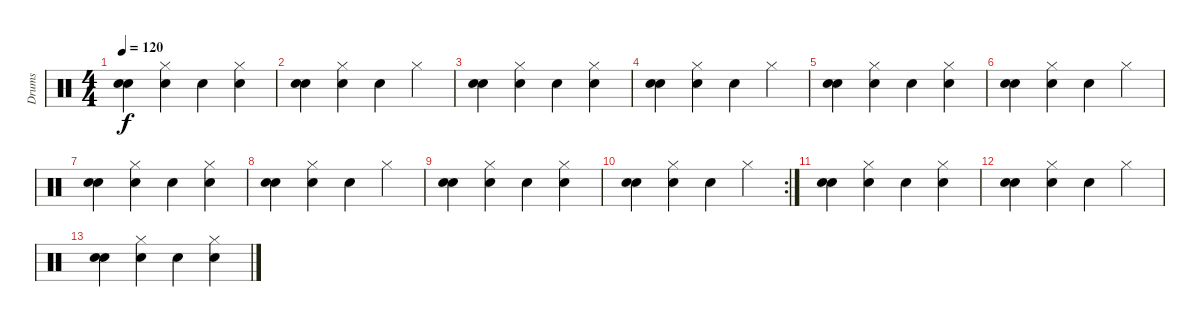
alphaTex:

\track ("Drums" "Drums") {instrument percussion}
\staff {score}
\articulation defaults
\ts (4 4)
\tempo 120
\clef neutral
\ks c
("Electric Snare (hit)" "Snare (hit) 2").4{dy f} ("Electric Snare (hit)" "Hi-Hat (closed)").4 "Electric Snare (hit)".4 ("Electric Snare (hit)" "Hi-Hat (closed)").4 |
("Electric Snare (hit)" "Snare (hit) 2").4 ("Electric Snare (hit)" "Hi-Hat (closed)").4 "Electric Snare (hit)".4 "Hi-Hat (closed)".4 |
("Electric Snare (hit)" "Snare (hit) 2").4 ("Electric Snare (hit)" "Hi-Hat (closed)").4 "Electric Snare (hit)".4 ("Electric Snare (hit)" "Hi-Hat (closed)").4 |
("Electric Snare (hit)" "Snare (hit) 2").4 ("Electric Snare (hit)" "Hi-Hat (closed)").4 "Electric Snare (hit)".4 "Hi-Hat (closed)".4 |
("Electric Snare (hit)" "Snare (hit) 2").4 ("Electric Snare (hit)" "Hi-Hat (closed)").4 "Electric Snare (hit)".4 ("Electric Snare (hit)" "Hi-Hat (closed)").4 |
("Electric Snare (hit)" "Snare (hit) 2").4 ("Electric Snare (hit)" "Hi-Hat (closed)").4 "Electric Snare (hit)".4 "Hi-Hat (closed)".4 |
("Electric Snare (hit)" "Snare (hit) 2").4 ("Electric Snare (hit)" "Hi-Hat (closed)").4 "Electric Snare (hit)".4 ("Electric Snare (hit)" "Hi-Hat (closed)").4 |
("Electric Snare (hit)" "Snare (hit) 2").4 ("Electric Snare (hit)" "Hi-Hat (closed)").4 "Electric Snare (hit)".4 "Hi-Hat (closed)".4 |
("Electric Snare (hit)" "Snare (hit) 2").4 ("Electric Snare (hit)" "Hi-Hat (closed)").4 "Electric Snare (hit)".4 ("Electric Snare (hit)" "Hi-Hat (closed)").4 |
\rc 2
("Electric Snare (hit)" "Snare (hit) 2").4 ("Electric Snare (hit)" "Hi-Hat (closed)").4 "Electric Snare (hit)".4 "Hi-Hat (closed)".4 |
("Electric Snare (hit)" "Snare (hit) 2").4 ("Electric Snare (hit)" "Hi-Hat (closed)").4 "Electric Snare (hit)".4 ("Electric Snare (hit)" "Hi-Hat (closed)").4 |
("Electric Snare (hit)" "Snare (hit) 2").4 ("Electric Snare (hit)" "Hi-Hat (closed)").4 "Electric Snare (hit)".4 "Hi-Hat (closed)".4 |
("Electric Snare (hit)" "Snare (hit) 2").4 ("Electric Snare (hit)" "Hi-Hat (closed)").4 "Electric Snare (hit)".4 ("Electric Snare (hit)" "Hi-Hat (closed)").4
